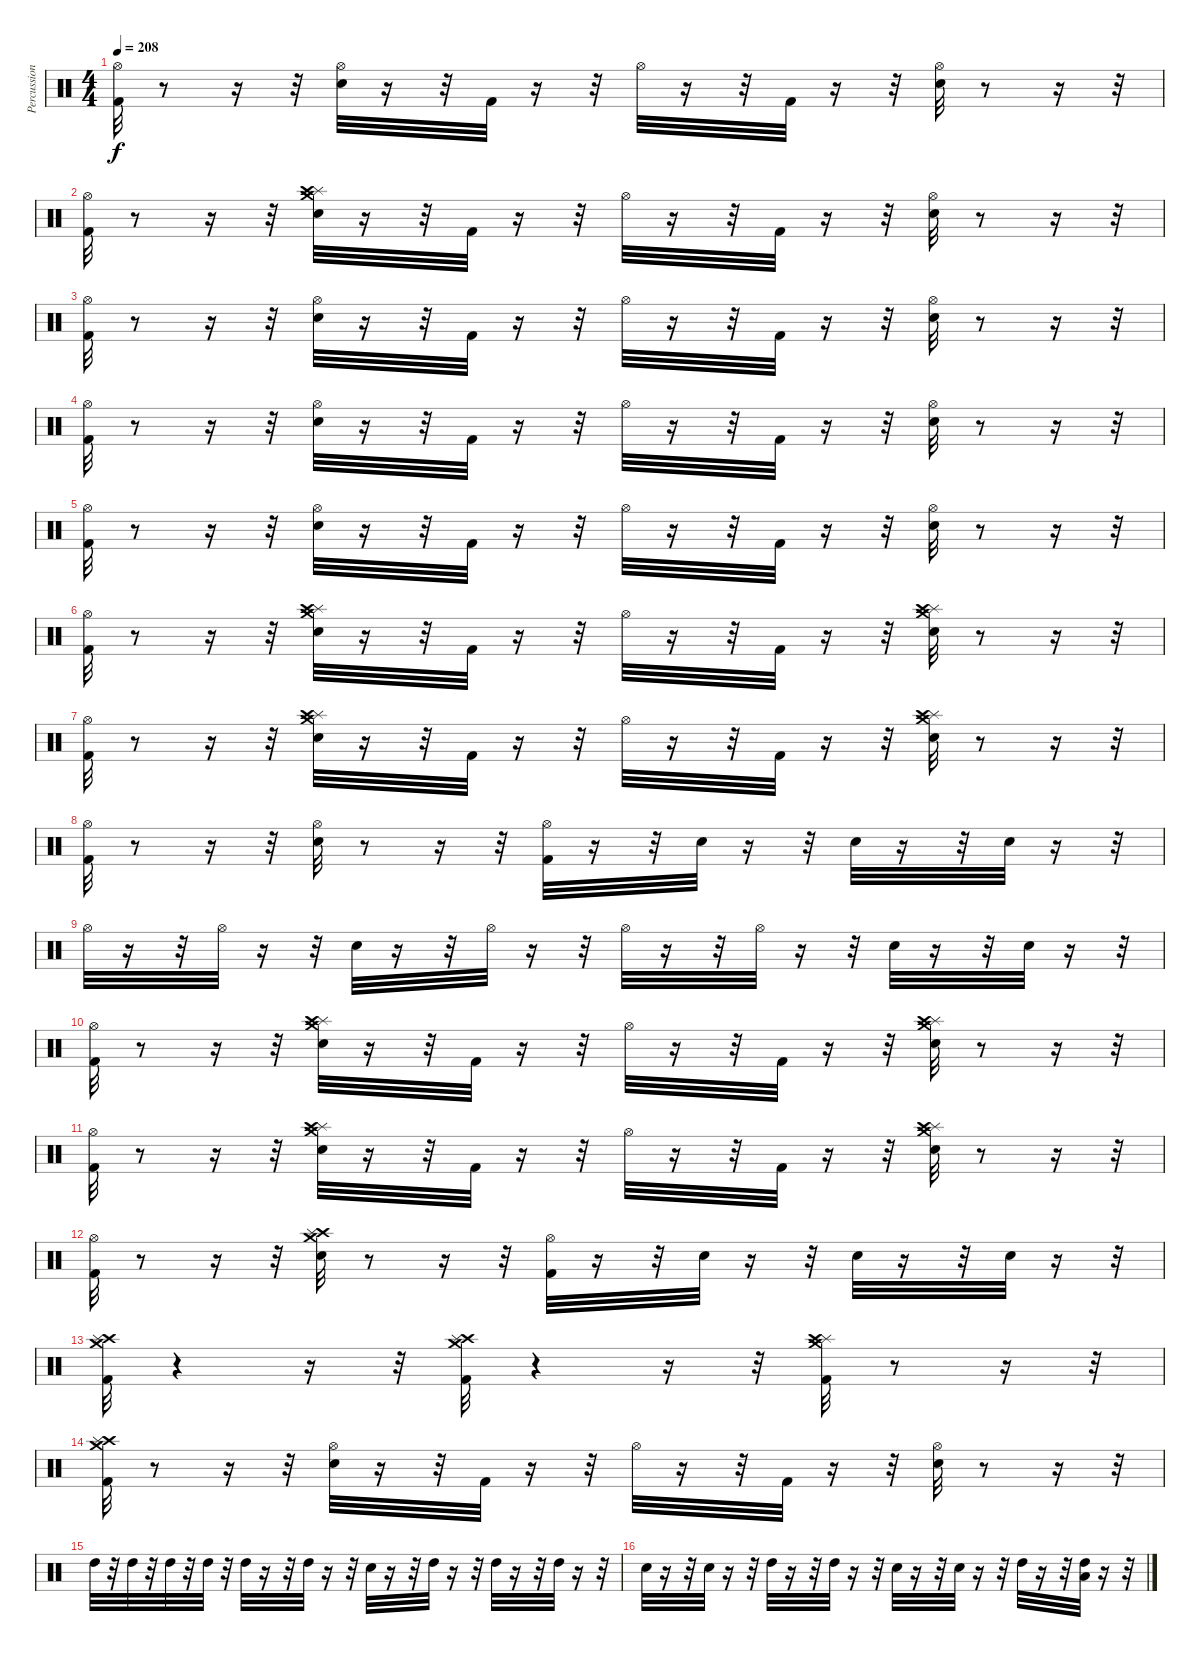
\track ("Percussion" "Percussion") {instrument percussion}
\staff {score}
\articulation defaults
\ts (4 4)
\tempo 208
\clef neutral
\ks c
("Kick (hit) 2" "Hi-Hat (open)").32{dy f} r.8 r.16 r.32 ("Snare (hit) 2" "Hi-Hat (open)").32 r.16 r.32 "Kick (hit) 2".32 r.16 r.32 "Hi-Hat (open)".32 r.16 r.32 "Kick (hit) 2".32 r.16 r.32 ("Snare (hit) 2" "Hi-Hat (open)").32 r.8 r.16 r.32 |
("Kick (hit) 2" "Hi-Hat (open)").32 r.8 r.16 r.32 ("Splash (hit)" "Crash medium (hit)" "Crash high (hit)" "Snare (hit) 2").32 r.16 r.32 "Kick (hit) 2".32 r.16 r.32 "Hi-Hat (open)".32 r.16 r.32 "Kick (hit) 2".32 r.16 r.32 ("Snare (hit) 2" "Hi-Hat (open)").32 r.8 r.16 r.32 |
("Kick (hit) 2" "Hi-Hat (open)").32 r.8 r.16 r.32 ("Snare (hit) 2" "Hi-Hat (open)").32 r.16 r.32 "Kick (hit) 2".32 r.16 r.32 "Hi-Hat (open)".32 r.16 r.32 "Kick (hit) 2".32 r.16 r.32 ("Snare (hit) 2" "Hi-Hat (open)").32 r.8 r.16 r.32 |
("Kick (hit) 2" "Hi-Hat (open)").32 r.8 r.16 r.32 ("Snare (hit) 2" "Hi-Hat (open)").32 r.16 r.32 "Kick (hit) 2".32 r.16 r.32 "Hi-Hat (open)".32 r.16 r.32 "Kick (hit) 2".32 r.16 r.32 ("Snare (hit) 2" "Hi-Hat (open)").32 r.8 r.16 r.32 |
("Kick (hit) 2" "Hi-Hat (open)").32 r.8 r.16 r.32 ("Snare (hit) 2" "Hi-Hat (open)").32 r.16 r.32 "Kick (hit) 2".32 r.16 r.32 "Hi-Hat (open)".32 r.16 r.32 "Kick (hit) 2".32 r.16 r.32 ("Snare (hit) 2" "Hi-Hat (open)").32 r.8 r.16 r.32 |
("Kick (hit) 2" "Hi-Hat (open)").32 r.8 r.16 r.32 ("Crash medium (hit)" "Splash (hit)" "Crash high (hit)" "Snare (hit) 2").32 r.16 r.32 "Kick (hit) 2".32 r.16 r.32 "Hi-Hat (open)".32 r.16 r.32 "Kick (hit) 2".32 r.16 r.32 ("Splash (hit)" "Crash medium (hit)" "Crash high (hit)" "Snare (hit) 2").32 r.8 r.16 r.32 |
("Kick (hit) 2" "Hi-Hat (open)").32 r.8 r.16 r.32 ("Crash medium (hit)" "Splash (hit)" "Crash high (hit)" "Snare (hit) 2").32 r.16 r.32 "Kick (hit) 2".32 r.16 r.32 "Hi-Hat (open)".32 r.16 r.32 "Kick (hit) 2".32 r.16 r.32 ("Splash (hit)" "Crash medium (hit)" "Crash high (hit)" "Snare (hit) 2").32 r.8 r.16 r.32 |
("Kick (hit) 2" "Hi-Hat (open)").32 r.8 r.16 r.32 ("Snare (hit) 2" "Hi-Hat (open)").32 r.8 r.16 r.32 ("Kick (hit) 2" "Hi-Hat (open)").32 r.16 r.32 "Snare (hit) 2".32 r.16 r.32 "Snare (hit) 2".32 r.16 r.32 "Snare (hit) 2".32 r.16 r.32 |
"Hi-Hat (open)".32 r.16 r.32 "Hi-Hat (open)".32 r.16 r.32 "Snare (hit) 2".32 r.16 r.32 "Hi-Hat (open)".32 r.16 r.32 "Hi-Hat (open)".32 r.16 r.32 "Hi-Hat (open)".32 r.16 r.32 "Snare (hit) 2".32 r.16 r.32 "Snare (hit) 2".32 r.16 r.32 |
("Kick (hit) 2" "Hi-Hat (open)").32 r.8 r.16 r.32 ("Crash medium (hit)" "Splash (hit)" "Crash high (hit)" "Snare (hit) 2").32 r.16 r.32 "Kick (hit) 2".32 r.16 r.32 "Hi-Hat (open)".32 r.16 r.32 "Kick (hit) 2".32 r.16 r.32 ("Splash (hit)" "Crash medium (hit)" "Crash high (hit)" "Snare (hit) 2").32 r.8 r.16 r.32 |
("Kick (hit) 2" "Hi-Hat (open)").32 r.8 r.16 r.32 ("Crash medium (hit)" "Splash (hit)" "Crash high (hit)" "Snare (hit) 2").32 r.16 r.32 "Kick (hit) 2".32 r.16 r.32 "Hi-Hat (open)".32 r.16 r.32 "Kick (hit) 2".32 r.16 r.32 ("Splash (hit)" "Crash medium (hit)" "Crash high (hit)" "Snare (hit) 2").32 r.8 r.16 r.32 |
("Kick (hit) 2" "Hi-Hat (open)").32 r.8 r.16 r.32 ("Crash high (hit)" "Crash medium (hit)" "Splash (hit)" "Snare (hit) 2").32 r.8 r.16 r.32 ("Kick (hit) 2" "Hi-Hat (open)").32 r.16 r.32 "Snare (hit) 2".32 r.16 r.32 "Snare (hit) 2".32 r.16 r.32 "Snare (hit) 2".32 r.16 r.32 |
("Kick (hit) 2" "Crash high (hit)" "Splash (hit)" "Crash medium (hit)").32 r.4 r.16 r.32 ("Kick (hit) 2" "Crash high (hit)" "Splash (hit)" "Crash medium (hit)").32 r.4 r.16 r.32 ("Kick (hit) 2" "Crash medium (hit)" "Splash (hit)" "Crash high (hit)").32 r.8 r.16 r.32 |
("Kick (hit) 2" "Crash high (hit)" "Crash medium (hit)" "Splash (hit)").32 r.8 r.16 r.32 ("Snare (hit) 2" "Hi-Hat (open)").32 r.16 r.32 "Kick (hit) 2".32 r.16 r.32 "Hi-Hat (open)".32 r.16 r.32 "Kick (hit) 2".32 r.16 r.32 ("Snare (hit) 2" "Hi-Hat (open)").32 r.8 r.16 r.32 |
"High Tom (hit)".32 r.32 "High Tom (hit)".32 r.32 "High Tom (hit)".32 r.32 "High Tom (hit)".32 r.32 "High Tom (hit)".32 r.16 r.32 "High Tom (hit)".32 r.16 r.32 "Snare (hit) 2".32 r.16 r.32 "High Tom (hit)".32 r.16 r.32 "High Tom (hit)".32 r.16 r.32 "High Tom (hit)".32 r.16 r.32 |
"Snare (hit) 2".32 r.16 r.32 "Snare (hit) 2".32 r.16 r.32 "High Tom (hit)".32 r.16 r.32 "High Tom (hit)".32 r.16 r.32 "Snare (hit) 2".32 r.16 r.32 "Snare (hit) 2".32 r.16 r.32 "High Tom (hit)".32 r.16 r.32 ("Low Tom (hit)" "High Tom (hit)").32 r.16 r.32
